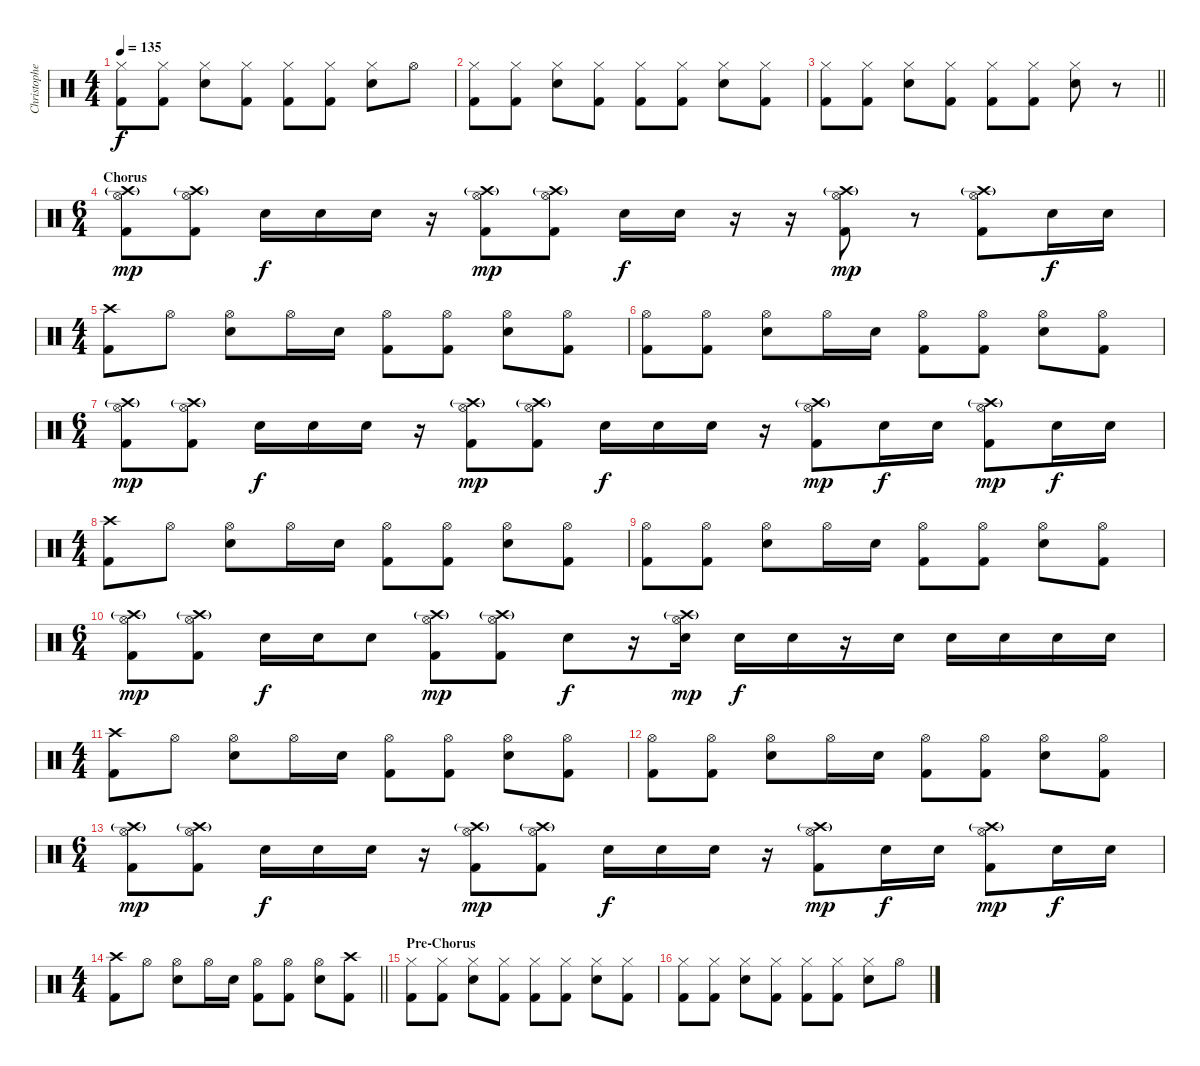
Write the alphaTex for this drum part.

\track ("Christopher - Drums" "Christophe") {instrument percussion}
\staff {score}
\articulation defaults
\ts (4 4)
\tempo 135
\clef neutral
\ks c
("Hi-Hat (closed)" "Kick (hit) 2").8{dy f} ("Hi-Hat (closed)" "Kick (hit) 2").8 ("Hi-Hat (closed)" "Snare (hit) 2").8 ("Hi-Hat (closed)" "Kick (hit) 2").8 ("Hi-Hat (closed)" "Kick (hit) 2").8 ("Hi-Hat (closed)" "Kick (hit) 2").8 ("Hi-Hat (closed)" "Snare (hit) 2").8 "Hi-Hat (open)".8 |
("Hi-Hat (closed)" "Kick (hit) 2").8 ("Hi-Hat (closed)" "Kick (hit) 2").8 ("Hi-Hat (closed)" "Snare (hit) 2").8 ("Hi-Hat (closed)" "Kick (hit) 2").8 ("Hi-Hat (closed)" "Kick (hit) 2").8 ("Hi-Hat (closed)" "Kick (hit) 2").8 ("Hi-Hat (closed)" "Snare (hit) 2").8 ("Hi-Hat (closed)" "Kick (hit) 2").8 |
\barLineRight lightlight
("Hi-Hat (closed)" "Kick (hit) 2").8 ("Hi-Hat (closed)" "Kick (hit) 2").8 ("Hi-Hat (closed)" "Snare (hit) 2").8 ("Hi-Hat (closed)" "Kick (hit) 2").8 ("Hi-Hat (closed)" "Kick (hit) 2").8 ("Hi-Hat (closed)" "Kick (hit) 2").8 ("Hi-Hat (closed)" "Snare (hit) 2").8 r.8 |
\ts (6 4)
\section ("" "Chorus")
("Crash high (hit)"{g} "Hi-Hat (open)" "Kick (hit) 2").8{dy mp} ("Crash high (hit)"{g} "Hi-Hat (open)" "Kick (hit) 2").8 "Snare (hit) 2".16{dy f} "Snare (hit) 2".16 "Snare (hit) 2".16 r.16 ("Crash high (hit)"{g} "Hi-Hat (open)" "Kick (hit) 2").8{dy mp} ("Crash high (hit)"{g} "Hi-Hat (open)" "Kick (hit) 2").8 "Snare (hit) 2".16{dy f} "Snare (hit) 2".16 r.16 r.16 ("Crash high (hit)"{g} "Hi-Hat (open)" "Kick (hit) 2").8{dy mp} r.8 ("Crash high (hit)"{g} "Hi-Hat (open)" "Kick (hit) 2").8 "Snare (hit) 2".16{dy f} "Snare (hit) 2".16 |
\ts (4 4)
("Crash high (hit)" "Kick (hit) 2").8 "Hi-Hat (open)".8 ("Hi-Hat (open)" "Snare (hit) 2").8 "Hi-Hat (open)".16 "Snare (hit) 2".16 ("Hi-Hat (open)" "Kick (hit) 2").8 ("Hi-Hat (open)" "Kick (hit) 2").8 ("Hi-Hat (open)" "Snare (hit) 2").8 ("Hi-Hat (open)" "Kick (hit) 2").8 |
("Hi-Hat (open)" "Kick (hit) 2").8 ("Hi-Hat (open)" "Kick (hit) 2").8 ("Hi-Hat (open)" "Snare (hit) 2").8 "Hi-Hat (open)".16 "Snare (hit) 2".16 ("Hi-Hat (open)" "Kick (hit) 2").8 ("Hi-Hat (open)" "Kick (hit) 2").8 ("Hi-Hat (open)" "Snare (hit) 2").8 ("Hi-Hat (open)" "Kick (hit) 2").8 |
\ts (6 4)
("Crash high (hit)"{g} "Hi-Hat (open)" "Kick (hit) 2").8{dy mp} ("Crash high (hit)"{g} "Hi-Hat (open)" "Kick (hit) 2").8 "Snare (hit) 2".16{dy f} "Snare (hit) 2".16 "Snare (hit) 2".16 r.16 ("Crash high (hit)"{g} "Hi-Hat (open)" "Kick (hit) 2").8{dy mp} ("Crash high (hit)"{g} "Hi-Hat (open)" "Kick (hit) 2").8 "Snare (hit) 2".16{dy f} "Snare (hit) 2".16 "Snare (hit) 2".16 r.16 ("Crash high (hit)"{g} "Hi-Hat (open)" "Kick (hit) 2").8{dy mp} "Snare (hit) 2".16{dy f} "Snare (hit) 2".16 ("Crash high (hit)"{g} "Hi-Hat (open)" "Kick (hit) 2").8{dy mp} "Snare (hit) 2".16{dy f} "Snare (hit) 2".16 |
\ts (4 4)
("Crash high (hit)" "Kick (hit) 2").8 "Hi-Hat (open)".8 ("Hi-Hat (open)" "Snare (hit) 2").8 "Hi-Hat (open)".16 "Snare (hit) 2".16 ("Hi-Hat (open)" "Kick (hit) 2").8 ("Hi-Hat (open)" "Kick (hit) 2").8 ("Hi-Hat (open)" "Snare (hit) 2").8 ("Hi-Hat (open)" "Kick (hit) 2").8 |
("Hi-Hat (open)" "Kick (hit) 2").8 ("Hi-Hat (open)" "Kick (hit) 2").8 ("Hi-Hat (open)" "Snare (hit) 2").8 "Hi-Hat (open)".16 "Snare (hit) 2".16 ("Hi-Hat (open)" "Kick (hit) 2").8 ("Hi-Hat (open)" "Kick (hit) 2").8 ("Hi-Hat (open)" "Snare (hit) 2").8 ("Hi-Hat (open)" "Kick (hit) 2").8 |
\ts (6 4)
("Crash high (hit)"{g} "Hi-Hat (open)" "Kick (hit) 2").8{dy mp} ("Crash high (hit)"{g} "Hi-Hat (open)" "Kick (hit) 2").8 "Snare (hit) 2".16{dy f} "Snare (hit) 2".16 "Snare (hit) 2".8 ("Crash high (hit)"{g} "Hi-Hat (open)" "Kick (hit) 2").8{dy mp} ("Crash high (hit)"{g} "Hi-Hat (open)" "Kick (hit) 2").8 "Snare (hit) 2".8{dy f} r.16 ("Crash high (hit)"{g} "Hi-Hat (open)" "Snare (hit) 2").16{dy mp} "Snare (hit) 2".16{dy f} "Snare (hit) 2".16 r.16 "Snare (hit) 2".16 "Snare (hit) 2".16 "Snare (hit) 2".16 "Snare (hit) 2".16 "Snare (hit) 2".16 |
\ts (4 4)
("Crash high (hit)" "Kick (hit) 2").8 "Hi-Hat (open)".8 ("Hi-Hat (open)" "Snare (hit) 2").8 "Hi-Hat (open)".16 "Snare (hit) 2".16 ("Hi-Hat (open)" "Kick (hit) 2").8 ("Hi-Hat (open)" "Kick (hit) 2").8 ("Hi-Hat (open)" "Snare (hit) 2").8 ("Hi-Hat (open)" "Kick (hit) 2").8 |
("Hi-Hat (open)" "Kick (hit) 2").8 ("Hi-Hat (open)" "Kick (hit) 2").8 ("Hi-Hat (open)" "Snare (hit) 2").8 "Hi-Hat (open)".16 "Snare (hit) 2".16 ("Hi-Hat (open)" "Kick (hit) 2").8 ("Hi-Hat (open)" "Kick (hit) 2").8 ("Hi-Hat (open)" "Snare (hit) 2").8 ("Hi-Hat (open)" "Kick (hit) 2").8 |
\ts (6 4)
("Crash high (hit)"{g} "Hi-Hat (open)" "Kick (hit) 2").8{dy mp} ("Crash high (hit)"{g} "Hi-Hat (open)" "Kick (hit) 2").8 "Snare (hit) 2".16{dy f} "Snare (hit) 2".16 "Snare (hit) 2".16 r.16 ("Crash high (hit)"{g} "Hi-Hat (open)" "Kick (hit) 2").8{dy mp} ("Crash high (hit)"{g} "Hi-Hat (open)" "Kick (hit) 2").8 "Snare (hit) 2".16{dy f} "Snare (hit) 2".16 "Snare (hit) 2".16 r.16 ("Crash high (hit)"{g} "Hi-Hat (open)" "Kick (hit) 2").8{dy mp} "Snare (hit) 2".16{dy f} "Snare (hit) 2".16 ("Crash high (hit)"{g} "Hi-Hat (open)" "Kick (hit) 2").8{dy mp} "Snare (hit) 2".16{dy f} "Snare (hit) 2".16 |
\ts (4 4)
\barLineRight lightlight
("Crash high (hit)" "Kick (hit) 2").8 "Hi-Hat (open)".8 ("Hi-Hat (open)" "Snare (hit) 2").8 "Hi-Hat (open)".16 "Snare (hit) 2".16 ("Hi-Hat (open)" "Kick (hit) 2").8 ("Hi-Hat (open)" "Kick (hit) 2").8 ("Hi-Hat (open)" "Snare (hit) 2").8 ("Crash high (hit)" "Kick (hit) 2").8 |
\section ("" "Pre-Chorus")
("Hi-Hat (closed)" "Kick (hit) 2").8 ("Hi-Hat (closed)" "Kick (hit) 2").8 ("Hi-Hat (closed)" "Snare (hit) 2").8 ("Hi-Hat (closed)" "Kick (hit) 2").8 ("Hi-Hat (closed)" "Kick (hit) 2").8 ("Hi-Hat (closed)" "Kick (hit) 2").8 ("Hi-Hat (closed)" "Snare (hit) 2").8 ("Hi-Hat (closed)" "Kick (hit) 2").8 |
("Hi-Hat (closed)" "Kick (hit) 2").8 ("Hi-Hat (closed)" "Kick (hit) 2").8 ("Hi-Hat (closed)" "Snare (hit) 2").8 ("Hi-Hat (closed)" "Kick (hit) 2").8 ("Hi-Hat (closed)" "Kick (hit) 2").8 ("Hi-Hat (closed)" "Kick (hit) 2").8 ("Hi-Hat (closed)" "Snare (hit) 2").8 "Hi-Hat (open)".8
